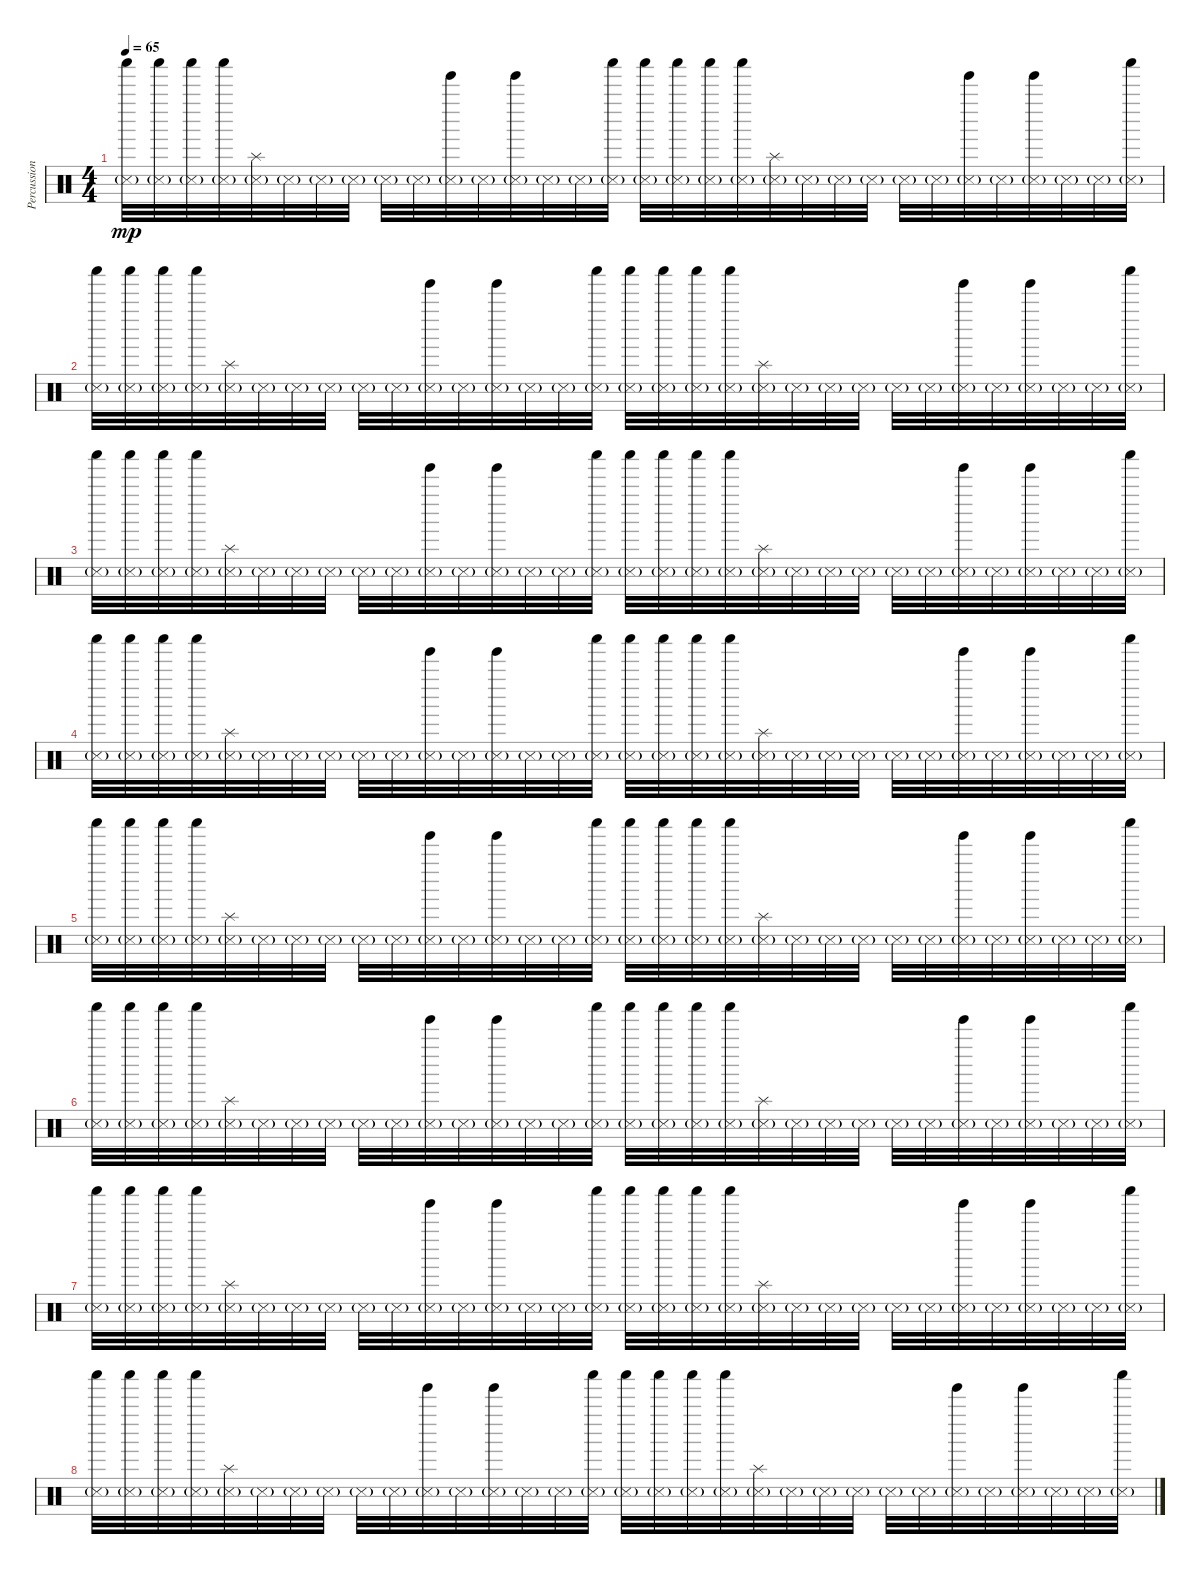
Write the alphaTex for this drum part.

\track ("Percussion 2" "Percussion") {instrument percussion}
\staff {score}
\articulation defaults
\ts (4 4)
\tempo 65
\clef neutral
\ks c
("Snare (side stick) 3"{g} "Shaker (hit)").32{dy mp} ("Snare (side stick) 3"{g} "Shaker (hit)").32 ("Snare (side stick) 3"{g} "Shaker (hit)").32 ("Snare (side stick) 3"{g} "Shaker (hit)").32 ("Snare (side stick) 3"{g} "Splash (hit)").32 "Snare (side stick) 3"{g}.32 "Snare (side stick) 3"{g}.32 "Snare (side stick) 3"{g}.32 "Snare (side stick) 3"{g}.32 "Snare (side stick) 3"{g}.32 ("Tinkle Bell (hit)" "Snare (side stick) 3"{g}).32 "Snare (side stick) 3"{g}.32 ("Tinkle Bell (hit)" "Snare (side stick) 3"{g}).32 "Snare (side stick) 3"{g}.32 "Snare (side stick) 3"{g}.32 ("Snare (side stick) 3"{g} "Shaker (hit)").32 ("Snare (side stick) 3"{g} "Shaker (hit)").32 ("Snare (side stick) 3"{g} "Shaker (hit)").32 ("Snare (side stick) 3"{g} "Shaker (hit)").32 ("Snare (side stick) 3"{g} "Shaker (hit)").32 ("Snare (side stick) 3"{g} "Splash (hit)").32 "Snare (side stick) 3"{g}.32 "Snare (side stick) 3"{g}.32 "Snare (side stick) 3"{g}.32 "Snare (side stick) 3"{g}.32 "Snare (side stick) 3"{g}.32 ("Tinkle Bell (hit)" "Snare (side stick) 3"{g}).32 "Snare (side stick) 3"{g}.32 ("Tinkle Bell (hit)" "Snare (side stick) 3"{g}).32 "Snare (side stick) 3"{g}.32 "Snare (side stick) 3"{g}.32 ("Snare (side stick) 3"{g} "Shaker (hit)").32 |
("Snare (side stick) 3"{g} "Shaker (hit)").32 ("Snare (side stick) 3"{g} "Shaker (hit)").32 ("Snare (side stick) 3"{g} "Shaker (hit)").32 ("Snare (side stick) 3"{g} "Shaker (hit)").32 ("Snare (side stick) 3"{g} "Splash (hit)").32 "Snare (side stick) 3"{g}.32 "Snare (side stick) 3"{g}.32 "Snare (side stick) 3"{g}.32 "Snare (side stick) 3"{g}.32 "Snare (side stick) 3"{g}.32 ("Tinkle Bell (hit)" "Snare (side stick) 3"{g}).32 "Snare (side stick) 3"{g}.32 ("Tinkle Bell (hit)" "Snare (side stick) 3"{g}).32 "Snare (side stick) 3"{g}.32 "Snare (side stick) 3"{g}.32 ("Snare (side stick) 3"{g} "Shaker (hit)").32 ("Snare (side stick) 3"{g} "Shaker (hit)").32 ("Snare (side stick) 3"{g} "Shaker (hit)").32 ("Snare (side stick) 3"{g} "Shaker (hit)").32 ("Snare (side stick) 3"{g} "Shaker (hit)").32 ("Snare (side stick) 3"{g} "Splash (hit)").32 "Snare (side stick) 3"{g}.32 "Snare (side stick) 3"{g}.32 "Snare (side stick) 3"{g}.32 "Snare (side stick) 3"{g}.32 "Snare (side stick) 3"{g}.32 ("Tinkle Bell (hit)" "Snare (side stick) 3"{g}).32 "Snare (side stick) 3"{g}.32 ("Tinkle Bell (hit)" "Snare (side stick) 3"{g}).32 "Snare (side stick) 3"{g}.32 "Snare (side stick) 3"{g}.32 ("Snare (side stick) 3"{g} "Shaker (hit)").32 |
("Snare (side stick) 3"{g} "Shaker (hit)").32 ("Snare (side stick) 3"{g} "Shaker (hit)").32 ("Snare (side stick) 3"{g} "Shaker (hit)").32 ("Snare (side stick) 3"{g} "Shaker (hit)").32 ("Snare (side stick) 3"{g} "Splash (hit)").32 "Snare (side stick) 3"{g}.32 "Snare (side stick) 3"{g}.32 "Snare (side stick) 3"{g}.32 "Snare (side stick) 3"{g}.32 "Snare (side stick) 3"{g}.32 ("Tinkle Bell (hit)" "Snare (side stick) 3"{g}).32 "Snare (side stick) 3"{g}.32 ("Tinkle Bell (hit)" "Snare (side stick) 3"{g}).32 "Snare (side stick) 3"{g}.32 "Snare (side stick) 3"{g}.32 ("Snare (side stick) 3"{g} "Shaker (hit)").32 ("Snare (side stick) 3"{g} "Shaker (hit)").32 ("Snare (side stick) 3"{g} "Shaker (hit)").32 ("Snare (side stick) 3"{g} "Shaker (hit)").32 ("Snare (side stick) 3"{g} "Shaker (hit)").32 ("Snare (side stick) 3"{g} "Splash (hit)").32 "Snare (side stick) 3"{g}.32 "Snare (side stick) 3"{g}.32 "Snare (side stick) 3"{g}.32 "Snare (side stick) 3"{g}.32 "Snare (side stick) 3"{g}.32 ("Tinkle Bell (hit)" "Snare (side stick) 3"{g}).32 "Snare (side stick) 3"{g}.32 ("Tinkle Bell (hit)" "Snare (side stick) 3"{g}).32 "Snare (side stick) 3"{g}.32 "Snare (side stick) 3"{g}.32 ("Snare (side stick) 3"{g} "Shaker (hit)").32 |
("Snare (side stick) 3"{g} "Shaker (hit)").32 ("Snare (side stick) 3"{g} "Shaker (hit)").32 ("Snare (side stick) 3"{g} "Shaker (hit)").32 ("Snare (side stick) 3"{g} "Shaker (hit)").32 ("Snare (side stick) 3"{g} "Splash (hit)").32 "Snare (side stick) 3"{g}.32 "Snare (side stick) 3"{g}.32 "Snare (side stick) 3"{g}.32 "Snare (side stick) 3"{g}.32 "Snare (side stick) 3"{g}.32 ("Tinkle Bell (hit)" "Snare (side stick) 3"{g}).32 "Snare (side stick) 3"{g}.32 ("Tinkle Bell (hit)" "Snare (side stick) 3"{g}).32 "Snare (side stick) 3"{g}.32 "Snare (side stick) 3"{g}.32 ("Snare (side stick) 3"{g} "Shaker (hit)").32 ("Snare (side stick) 3"{g} "Shaker (hit)").32 ("Snare (side stick) 3"{g} "Shaker (hit)").32 ("Snare (side stick) 3"{g} "Shaker (hit)").32 ("Snare (side stick) 3"{g} "Shaker (hit)").32 ("Snare (side stick) 3"{g} "Splash (hit)").32 "Snare (side stick) 3"{g}.32 "Snare (side stick) 3"{g}.32 "Snare (side stick) 3"{g}.32 "Snare (side stick) 3"{g}.32 "Snare (side stick) 3"{g}.32 ("Tinkle Bell (hit)" "Snare (side stick) 3"{g}).32 "Snare (side stick) 3"{g}.32 ("Tinkle Bell (hit)" "Snare (side stick) 3"{g}).32 "Snare (side stick) 3"{g}.32 "Snare (side stick) 3"{g}.32 ("Snare (side stick) 3"{g} "Shaker (hit)").32 |
("Snare (side stick) 3"{g} "Shaker (hit)").32 ("Snare (side stick) 3"{g} "Shaker (hit)").32 ("Snare (side stick) 3"{g} "Shaker (hit)").32 ("Snare (side stick) 3"{g} "Shaker (hit)").32 ("Snare (side stick) 3"{g} "Splash (hit)").32 "Snare (side stick) 3"{g}.32 "Snare (side stick) 3"{g}.32 "Snare (side stick) 3"{g}.32 "Snare (side stick) 3"{g}.32 "Snare (side stick) 3"{g}.32 ("Tinkle Bell (hit)" "Snare (side stick) 3"{g}).32 "Snare (side stick) 3"{g}.32 ("Tinkle Bell (hit)" "Snare (side stick) 3"{g}).32 "Snare (side stick) 3"{g}.32 "Snare (side stick) 3"{g}.32 ("Snare (side stick) 3"{g} "Shaker (hit)").32 ("Snare (side stick) 3"{g} "Shaker (hit)").32 ("Snare (side stick) 3"{g} "Shaker (hit)").32 ("Snare (side stick) 3"{g} "Shaker (hit)").32 ("Snare (side stick) 3"{g} "Shaker (hit)").32 ("Snare (side stick) 3"{g} "Splash (hit)").32 "Snare (side stick) 3"{g}.32 "Snare (side stick) 3"{g}.32 "Snare (side stick) 3"{g}.32 "Snare (side stick) 3"{g}.32 "Snare (side stick) 3"{g}.32 ("Tinkle Bell (hit)" "Snare (side stick) 3"{g}).32 "Snare (side stick) 3"{g}.32 ("Tinkle Bell (hit)" "Snare (side stick) 3"{g}).32 "Snare (side stick) 3"{g}.32 "Snare (side stick) 3"{g}.32 ("Snare (side stick) 3"{g} "Shaker (hit)").32 |
("Snare (side stick) 3"{g} "Shaker (hit)").32 ("Snare (side stick) 3"{g} "Shaker (hit)").32 ("Snare (side stick) 3"{g} "Shaker (hit)").32 ("Snare (side stick) 3"{g} "Shaker (hit)").32 ("Snare (side stick) 3"{g} "Splash (hit)").32 "Snare (side stick) 3"{g}.32 "Snare (side stick) 3"{g}.32 "Snare (side stick) 3"{g}.32 "Snare (side stick) 3"{g}.32 "Snare (side stick) 3"{g}.32 ("Tinkle Bell (hit)" "Snare (side stick) 3"{g}).32 "Snare (side stick) 3"{g}.32 ("Tinkle Bell (hit)" "Snare (side stick) 3"{g}).32 "Snare (side stick) 3"{g}.32 "Snare (side stick) 3"{g}.32 ("Snare (side stick) 3"{g} "Shaker (hit)").32 ("Snare (side stick) 3"{g} "Shaker (hit)").32 ("Snare (side stick) 3"{g} "Shaker (hit)").32 ("Snare (side stick) 3"{g} "Shaker (hit)").32 ("Snare (side stick) 3"{g} "Shaker (hit)").32 ("Snare (side stick) 3"{g} "Splash (hit)").32 "Snare (side stick) 3"{g}.32 "Snare (side stick) 3"{g}.32 "Snare (side stick) 3"{g}.32 "Snare (side stick) 3"{g}.32 "Snare (side stick) 3"{g}.32 ("Tinkle Bell (hit)" "Snare (side stick) 3"{g}).32 "Snare (side stick) 3"{g}.32 ("Tinkle Bell (hit)" "Snare (side stick) 3"{g}).32 "Snare (side stick) 3"{g}.32 "Snare (side stick) 3"{g}.32 ("Snare (side stick) 3"{g} "Shaker (hit)").32 |
("Snare (side stick) 3"{g} "Shaker (hit)").32 ("Snare (side stick) 3"{g} "Shaker (hit)").32 ("Snare (side stick) 3"{g} "Shaker (hit)").32 ("Snare (side stick) 3"{g} "Shaker (hit)").32 ("Snare (side stick) 3"{g} "Splash (hit)").32 "Snare (side stick) 3"{g}.32 "Snare (side stick) 3"{g}.32 "Snare (side stick) 3"{g}.32 "Snare (side stick) 3"{g}.32 "Snare (side stick) 3"{g}.32 ("Tinkle Bell (hit)" "Snare (side stick) 3"{g}).32 "Snare (side stick) 3"{g}.32 ("Tinkle Bell (hit)" "Snare (side stick) 3"{g}).32 "Snare (side stick) 3"{g}.32 "Snare (side stick) 3"{g}.32 ("Snare (side stick) 3"{g} "Shaker (hit)").32 ("Snare (side stick) 3"{g} "Shaker (hit)").32 ("Snare (side stick) 3"{g} "Shaker (hit)").32 ("Snare (side stick) 3"{g} "Shaker (hit)").32 ("Snare (side stick) 3"{g} "Shaker (hit)").32 ("Snare (side stick) 3"{g} "Splash (hit)").32 "Snare (side stick) 3"{g}.32 "Snare (side stick) 3"{g}.32 "Snare (side stick) 3"{g}.32 "Snare (side stick) 3"{g}.32 "Snare (side stick) 3"{g}.32 ("Tinkle Bell (hit)" "Snare (side stick) 3"{g}).32 "Snare (side stick) 3"{g}.32 ("Tinkle Bell (hit)" "Snare (side stick) 3"{g}).32 "Snare (side stick) 3"{g}.32 "Snare (side stick) 3"{g}.32 ("Snare (side stick) 3"{g} "Shaker (hit)").32 |
("Snare (side stick) 3"{g} "Shaker (hit)").32 ("Snare (side stick) 3"{g} "Shaker (hit)").32 ("Snare (side stick) 3"{g} "Shaker (hit)").32 ("Snare (side stick) 3"{g} "Shaker (hit)").32 ("Snare (side stick) 3"{g} "Splash (hit)").32 "Snare (side stick) 3"{g}.32 "Snare (side stick) 3"{g}.32 "Snare (side stick) 3"{g}.32 "Snare (side stick) 3"{g}.32 "Snare (side stick) 3"{g}.32 ("Tinkle Bell (hit)" "Snare (side stick) 3"{g}).32 "Snare (side stick) 3"{g}.32 ("Tinkle Bell (hit)" "Snare (side stick) 3"{g}).32 "Snare (side stick) 3"{g}.32 "Snare (side stick) 3"{g}.32 ("Snare (side stick) 3"{g} "Shaker (hit)").32 ("Snare (side stick) 3"{g} "Shaker (hit)").32 ("Snare (side stick) 3"{g} "Shaker (hit)").32 ("Snare (side stick) 3"{g} "Shaker (hit)").32 ("Snare (side stick) 3"{g} "Shaker (hit)").32 ("Snare (side stick) 3"{g} "Splash (hit)").32 "Snare (side stick) 3"{g}.32 "Snare (side stick) 3"{g}.32 "Snare (side stick) 3"{g}.32 "Snare (side stick) 3"{g}.32 "Snare (side stick) 3"{g}.32 ("Tinkle Bell (hit)" "Snare (side stick) 3"{g}).32 "Snare (side stick) 3"{g}.32 ("Tinkle Bell (hit)" "Snare (side stick) 3"{g}).32 "Snare (side stick) 3"{g}.32 "Snare (side stick) 3"{g}.32 ("Snare (side stick) 3"{g} "Shaker (hit)").32
